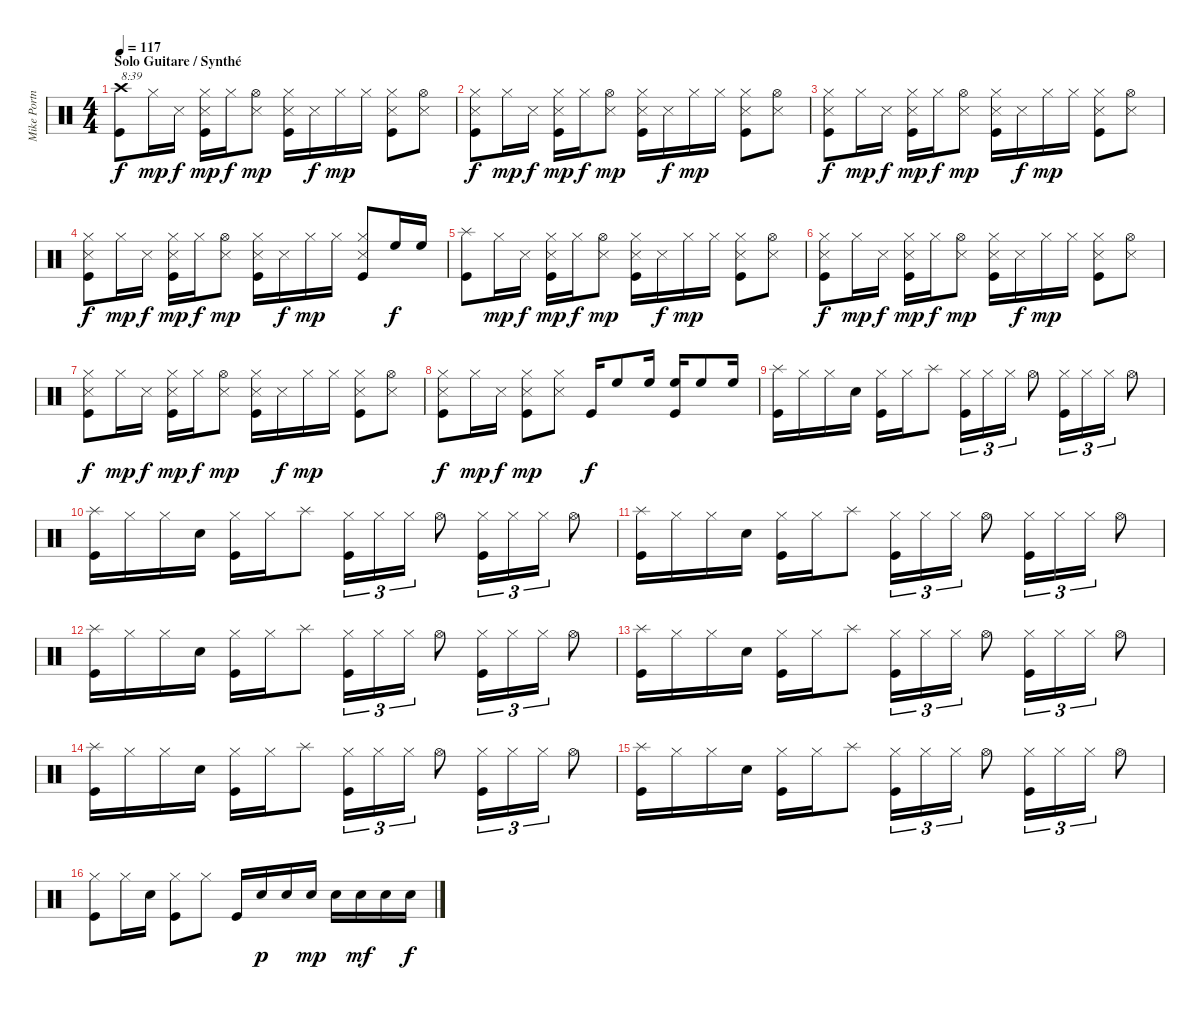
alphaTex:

\track ("Mike Portnoy" "Mike Portn") {instrument percussion}
\staff {score}
\articulation defaults
\ts (4 4)
\section ("" "Solo Guitare / Synthé")
\tempo 117
\clef neutral
\ks c
("Crash high (hit)" "Kick (hit)").8{txt "8:39" dy f} "Hi-Hat (closed)".16{dy mp} "Snare (side stick) 3".16{dy f} ("Hi-Hat (closed)" "Snare (side stick) 3" "Kick (hit)").16{dy mp} "Hi-Hat (closed)".16{dy f} ("Hi-Hat (open)" "Snare (side stick) 3").8{dy mp} ("Hi-Hat (closed)" "Snare (side stick) 3" "Kick (hit)").16 "Snare (side stick) 3".16{dy f} "Hi-Hat (closed)".16{dy mp} "Hi-Hat (closed)".16 ("Hi-Hat (closed)" "Snare (side stick) 3" "Kick (hit)").8 ("Hi-Hat (open)" "Snare (side stick) 3").8 |
("Hi-Hat (closed)" "Snare (side stick) 3" "Kick (hit)").8{dy f} "Hi-Hat (closed)".16{dy mp} "Snare (side stick) 3".16{dy f} ("Hi-Hat (closed)" "Snare (side stick) 3" "Kick (hit)").16{dy mp} "Hi-Hat (closed)".16{dy f} ("Hi-Hat (open)" "Snare (side stick) 3").8{dy mp} ("Hi-Hat (closed)" "Snare (side stick) 3" "Kick (hit)").16 "Snare (side stick) 3".16{dy f} "Hi-Hat (closed)".16{dy mp} "Hi-Hat (closed)".16 ("Hi-Hat (closed)" "Snare (side stick) 3" "Kick (hit)").8 ("Hi-Hat (open)" "Snare (side stick) 3").8 |
("Hi-Hat (closed)" "Snare (side stick) 3" "Kick (hit)").8{dy f} "Hi-Hat (closed)".16{dy mp} "Snare (side stick) 3".16{dy f} ("Hi-Hat (closed)" "Snare (side stick) 3" "Kick (hit)").16{dy mp} "Hi-Hat (closed)".16{dy f} ("Hi-Hat (open)" "Snare (side stick) 3").8{dy mp} ("Hi-Hat (closed)" "Snare (side stick) 3" "Kick (hit)").16 "Snare (side stick) 3".16{dy f} "Hi-Hat (closed)".16{dy mp} "Hi-Hat (closed)".16 ("Hi-Hat (closed)" "Snare (side stick) 3" "Kick (hit)").8 ("Hi-Hat (open)" "Snare (side stick) 3").8 |
("Hi-Hat (closed)" "Snare (side stick) 3" "Kick (hit)").8{dy f} "Hi-Hat (closed)".16{dy mp} "Snare (side stick) 3".16{dy f} ("Hi-Hat (closed)" "Snare (side stick) 3" "Kick (hit)").16{dy mp} "Hi-Hat (closed)".16{dy f} ("Hi-Hat (open)" "Snare (side stick) 3").8{dy mp} ("Hi-Hat (closed)" "Snare (side stick) 3" "Kick (hit)").16 "Snare (side stick) 3".16{dy f} "Hi-Hat (closed)".16{dy mp} "Hi-Hat (closed)".16 ("Hi-Hat (closed)" "Snare (side stick) 3" "Kick (hit)").8 "High Floor Tom (hit)".16{dy f} "High Floor Tom (hit)".16 |
("Splash (hit)" "Kick (hit)").8 "Hi-Hat (closed)".16{dy mp} "Snare (side stick) 3".16{dy f} ("Hi-Hat (closed)" "Snare (side stick) 3" "Kick (hit)").16{dy mp} "Hi-Hat (closed)".16{dy f} ("Hi-Hat (open)" "Snare (side stick) 3").8{dy mp} ("Hi-Hat (closed)" "Snare (side stick) 3" "Kick (hit)").16 "Snare (side stick) 3".16{dy f} "Hi-Hat (closed)".16{dy mp} "Hi-Hat (closed)".16 ("Hi-Hat (closed)" "Snare (side stick) 3" "Kick (hit)").8 ("Hi-Hat (open)" "Snare (side stick) 3").8 |
("Hi-Hat (closed)" "Snare (side stick) 3" "Kick (hit)").8{dy f} "Hi-Hat (closed)".16{dy mp} "Snare (side stick) 3".16{dy f} ("Hi-Hat (closed)" "Snare (side stick) 3" "Kick (hit)").16{dy mp} "Hi-Hat (closed)".16{dy f} ("Hi-Hat (open)" "Snare (side stick) 3").8{dy mp} ("Hi-Hat (closed)" "Snare (side stick) 3" "Kick (hit)").16 "Snare (side stick) 3".16{dy f} "Hi-Hat (closed)".16{dy mp} "Hi-Hat (closed)".16 ("Hi-Hat (closed)" "Snare (side stick) 3" "Kick (hit)").8 ("Hi-Hat (open)" "Snare (side stick) 3").8 |
("Hi-Hat (closed)" "Snare (side stick) 3" "Kick (hit)").8{dy f} "Hi-Hat (closed)".16{dy mp} "Snare (side stick) 3".16{dy f} ("Hi-Hat (closed)" "Snare (side stick) 3" "Kick (hit)").16{dy mp} "Hi-Hat (closed)".16{dy f} ("Hi-Hat (open)" "Snare (side stick) 3").8{dy mp} ("Hi-Hat (closed)" "Snare (side stick) 3" "Kick (hit)").16 "Snare (side stick) 3".16{dy f} "Hi-Hat (closed)".16{dy mp} "Hi-Hat (closed)".16 ("Hi-Hat (closed)" "Snare (side stick) 3" "Kick (hit)").8 ("Hi-Hat (open)" "Snare (side stick) 3").8 |
("Hi-Hat (closed)" "Snare (side stick) 3" "Kick (hit)").8{dy f} "Hi-Hat (closed)".16{dy mp} "Snare (side stick) 3".16{dy f} ("Hi-Hat (closed)" "Snare (side stick) 3" "Kick (hit)").8{dy mp} ("Hi-Hat (closed)" "Snare (side stick) 3").8 "Kick (hit)".16{dy f} "High Floor Tom (hit)".8 "High Floor Tom (hit)".16 ("High Floor Tom (hit)" "Kick (hit)").16 "High Floor Tom (hit)".8 "High Floor Tom (hit)".16 |
("Splash (hit)" "Kick (hit)").16 "Hi-Hat (closed)".16 "Hi-Hat (closed)".16 "Snare (hit) 2".16 ("Hi-Hat (closed)" "Kick (hit)").16 "Hi-Hat (closed)".16 "Splash (hit)".8 ("Hi-Hat (closed)" "Kick (hit)").16{tu (3 2)} "Hi-Hat (closed)".16{tu (3 2)} "Hi-Hat (closed)".16{tu (3 2)} "Hi-Hat (open)".8 ("Hi-Hat (closed)" "Kick (hit)").16{tu (3 2)} "Hi-Hat (closed)".16{tu (3 2)} "Hi-Hat (closed)".16{tu (3 2)} "Hi-Hat (open)".8 |
("Splash (hit)" "Kick (hit)").16 "Hi-Hat (closed)".16 "Hi-Hat (closed)".16 "Snare (hit) 2".16 ("Hi-Hat (closed)" "Kick (hit)").16 "Hi-Hat (closed)".16 "Splash (hit)".8 ("Hi-Hat (closed)" "Kick (hit)").16{tu (3 2)} "Hi-Hat (closed)".16{tu (3 2)} "Hi-Hat (closed)".16{tu (3 2)} "Hi-Hat (open)".8 ("Hi-Hat (closed)" "Kick (hit)").16{tu (3 2)} "Hi-Hat (closed)".16{tu (3 2)} "Hi-Hat (closed)".16{tu (3 2)} "Hi-Hat (open)".8 |
("Splash (hit)" "Kick (hit)").16 "Hi-Hat (closed)".16 "Hi-Hat (closed)".16 "Snare (hit) 2".16 ("Hi-Hat (closed)" "Kick (hit)").16 "Hi-Hat (closed)".16 "Splash (hit)".8 ("Hi-Hat (closed)" "Kick (hit)").16{tu (3 2)} "Hi-Hat (closed)".16{tu (3 2)} "Hi-Hat (closed)".16{tu (3 2)} "Hi-Hat (open)".8 ("Hi-Hat (closed)" "Kick (hit)").16{tu (3 2)} "Hi-Hat (closed)".16{tu (3 2)} "Hi-Hat (closed)".16{tu (3 2)} "Hi-Hat (open)".8 |
("Splash (hit)" "Kick (hit)").16 "Hi-Hat (closed)".16 "Hi-Hat (closed)".16 "Snare (hit) 2".16 ("Hi-Hat (closed)" "Kick (hit)").16 "Hi-Hat (closed)".16 "Splash (hit)".8 ("Hi-Hat (closed)" "Kick (hit)").16{tu (3 2)} "Hi-Hat (closed)".16{tu (3 2)} "Hi-Hat (closed)".16{tu (3 2)} "Hi-Hat (open)".8 ("Hi-Hat (closed)" "Kick (hit)").16{tu (3 2)} "Hi-Hat (closed)".16{tu (3 2)} "Hi-Hat (closed)".16{tu (3 2)} "Hi-Hat (open)".8 |
("Splash (hit)" "Kick (hit)").16 "Hi-Hat (closed)".16 "Hi-Hat (closed)".16 "Snare (hit) 2".16 ("Hi-Hat (closed)" "Kick (hit)").16 "Hi-Hat (closed)".16 "Splash (hit)".8 ("Hi-Hat (closed)" "Kick (hit)").16{tu (3 2)} "Hi-Hat (closed)".16{tu (3 2)} "Hi-Hat (closed)".16{tu (3 2)} "Hi-Hat (open)".8 ("Hi-Hat (closed)" "Kick (hit)").16{tu (3 2)} "Hi-Hat (closed)".16{tu (3 2)} "Hi-Hat (closed)".16{tu (3 2)} "Hi-Hat (open)".8 |
("Splash (hit)" "Kick (hit)").16 "Hi-Hat (closed)".16 "Hi-Hat (closed)".16 "Snare (hit) 2".16 ("Hi-Hat (closed)" "Kick (hit)").16 "Hi-Hat (closed)".16 "Splash (hit)".8 ("Hi-Hat (closed)" "Kick (hit)").16{tu (3 2)} "Hi-Hat (closed)".16{tu (3 2)} "Hi-Hat (closed)".16{tu (3 2)} "Hi-Hat (open)".8 ("Hi-Hat (closed)" "Kick (hit)").16{tu (3 2)} "Hi-Hat (closed)".16{tu (3 2)} "Hi-Hat (closed)".16{tu (3 2)} "Hi-Hat (open)".8 |
("Splash (hit)" "Kick (hit)").16 "Hi-Hat (closed)".16 "Hi-Hat (closed)".16 "Snare (hit) 2".16 ("Hi-Hat (closed)" "Kick (hit)").16 "Hi-Hat (closed)".16 "Splash (hit)".8 ("Hi-Hat (closed)" "Kick (hit)").16{tu (3 2)} "Hi-Hat (closed)".16{tu (3 2)} "Hi-Hat (closed)".16{tu (3 2)} "Hi-Hat (open)".8 ("Hi-Hat (closed)" "Kick (hit)").16{tu (3 2)} "Hi-Hat (closed)".16{tu (3 2)} "Hi-Hat (closed)".16{tu (3 2)} "Hi-Hat (open)".8 |
("Hi-Hat (closed)" "Kick (hit)").8 "Hi-Hat (closed)".16 "Snare (hit) 2".16 ("Hi-Hat (closed)" "Kick (hit)").8 "Hi-Hat (closed)".8 "Kick (hit)".16 "Snare (hit) 2".16{dy p} "Snare (hit) 2".16 "Snare (hit) 2".16{dy mp} "Snare (hit) 2".16 "Snare (hit) 2".16{dy mf} "Snare (hit) 2".16 "Snare (hit) 2".16{dy f}
